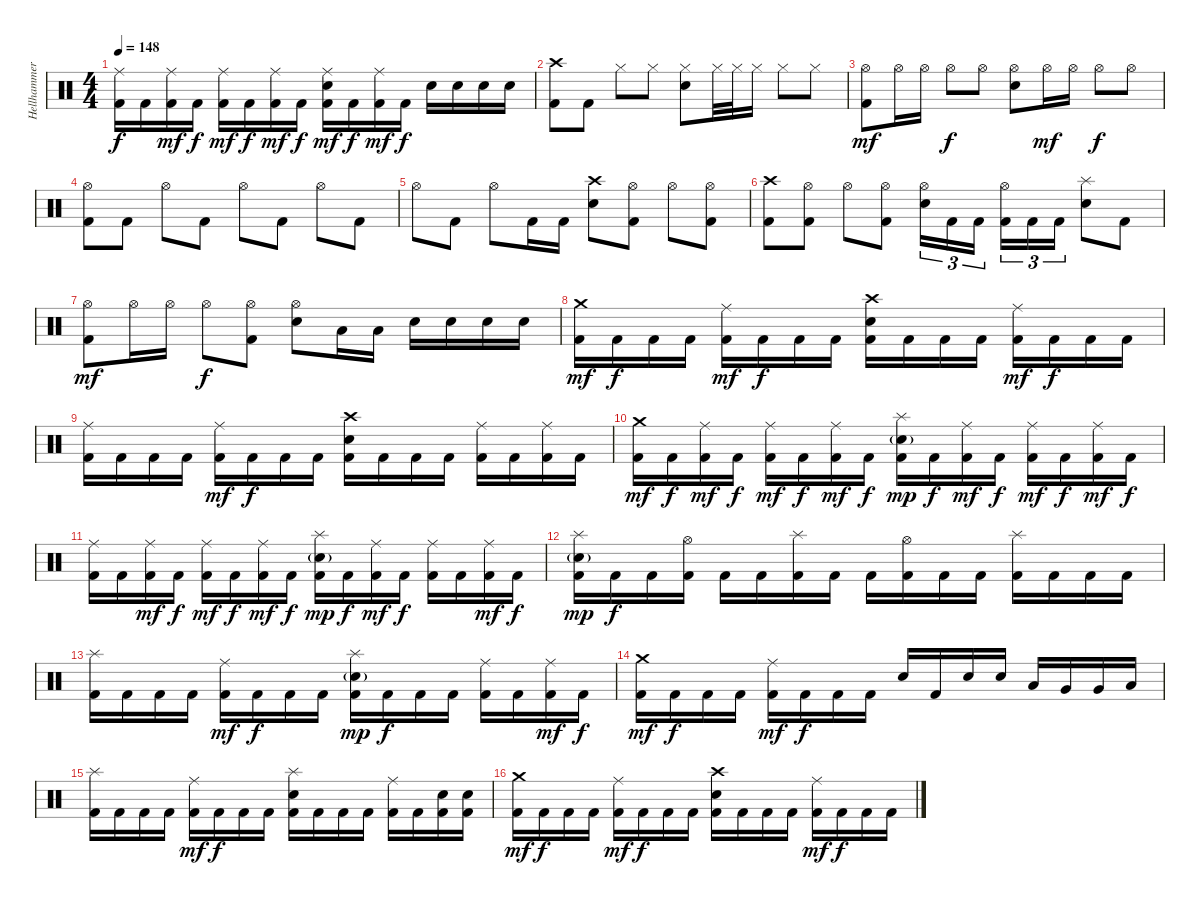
\track ("Hellhammer" "Hellhammer") {instrument percussion}
\staff {score}
\articulation defaults
\ts (4 4)
\tempo 148
\clef neutral
\ks c
("Ride (middle)" "Kick (hit) 2").16{dy f} "Kick (hit) 2".16 ("Ride (middle)" "Kick (hit) 2").16{dy mf} "Kick (hit) 2".16{dy f} ("Ride (middle)" "Kick (hit) 2").16{dy mf} "Kick (hit) 2".16{dy f} ("Ride (middle)" "Kick (hit) 2").16{dy mf} "Kick (hit) 2".16{dy f} ("Ride (middle)" "Snare (hit) 2" "Kick (hit) 2").16{dy mf} "Kick (hit) 2".16{dy f} ("Ride (middle)" "Kick (hit) 2").16{dy mf} "Kick (hit) 2".16{dy f} "Snare (hit) 2".16 "Snare (hit) 2".16 "Snare (hit) 2".16 "Snare (hit) 2".16 |
("Crash high (hit)" "Kick (hit) 2").8 "Kick (hit) 2".8 "Hi-Hat (closed)".8 "Hi-Hat (closed)".8 ("Hi-Hat (closed)" "Snare (hit) 2").8 "Hi-Hat (closed)".32 "Hi-Hat (closed)".32 "Hi-Hat (closed)".16 "Hi-Hat (closed)".8 "Hi-Hat (closed)".8 |
("Hi-Hat (open)" "Kick (hit) 2").8{dy mf} "Hi-Hat (open)".16 "Hi-Hat (open)".16 "Hi-Hat (open)".8{dy f} "Hi-Hat (open)".8 ("Hi-Hat (open)" "Snare (hit) 2").8 "Hi-Hat (open)".16{dy mf} "Hi-Hat (open)".16 "Hi-Hat (open)".8{dy f} "Hi-Hat (open)".8 |
("Hi-Hat (open)" "Kick (hit) 2").8 "Kick (hit) 2".8 "Hi-Hat (open)".8 "Kick (hit) 2".8 "Hi-Hat (open)".8 "Kick (hit) 2".8 "Hi-Hat (open)".8 "Kick (hit) 2".8 |
"Hi-Hat (open)".8 "Kick (hit) 2".8 "Hi-Hat (open)".8 "Kick (hit) 2".16 "Kick (hit) 2".16 ("Crash high (hit)" "Snare (hit) 2").8 ("Hi-Hat (open)" "Kick (hit) 2").8 "Hi-Hat (open)".8 ("Hi-Hat (open)" "Kick (hit) 2").8 |
("Crash high (hit)" "Kick (hit) 2").8 ("Hi-Hat (open)" "Kick (hit) 2").8 "Hi-Hat (open)".8 ("Hi-Hat (open)" "Kick (hit) 2").8 ("Hi-Hat (open)" "Snare (hit) 2").16{tu (3 2)} "Kick (hit) 2".16{tu (3 2)} "Kick (hit) 2".16{tu (3 2) beam splitsecondary} ("Hi-Hat (open)" "Kick (hit) 2").16{tu (3 2)} "Kick (hit) 2".16{tu (3 2)} "Kick (hit) 2".16{tu (3 2)} ("Splash (hit)" "Snare (hit) 2").8 "Kick (hit) 2".8 |
("Hi-Hat (open)" "Kick (hit) 2").8{dy mf} "Hi-Hat (open)".16 "Hi-Hat (open)".16 "Hi-Hat (open)".8{dy f} ("Hi-Hat (open)" "Kick (hit) 2").8 ("Hi-Hat (open)" "Snare (hit) 2").8 "Low Tom (hit)".16 "Low Tom (hit)".16 "Snare (hit) 2".16 "Snare (hit) 2".16 "Snare (hit) 2".16 "Snare (hit) 2".16 |
("Crash medium (hit)" "Kick (hit) 2").16{dy mf} "Kick (hit) 2".16{dy f} "Kick (hit) 2".16 "Kick (hit) 2".16 ("Ride (middle)" "Kick (hit) 2").16{dy mf} "Kick (hit) 2".16{dy f} "Kick (hit) 2".16 "Kick (hit) 2".16 ("Crash high (hit)" "Snare (hit) 2" "Kick (hit) 2").16 "Kick (hit) 2".16 "Kick (hit) 2".16 "Kick (hit) 2".16 ("Ride (middle)" "Kick (hit) 2").16{dy mf} "Kick (hit) 2".16{dy f} "Kick (hit) 2".16 "Kick (hit) 2".16 |
("Ride (middle)" "Kick (hit) 2").16 "Kick (hit) 2".16 "Kick (hit) 2".16 "Kick (hit) 2".16 ("Ride (middle)" "Kick (hit) 2").16{dy mf} "Kick (hit) 2".16{dy f} "Kick (hit) 2".16 "Kick (hit) 2".16 ("Crash high (hit)" "Snare (hit) 2" "Kick (hit) 2").16 "Kick (hit) 2".16 "Kick (hit) 2".16 "Kick (hit) 2".16 ("Ride (middle)" "Kick (hit) 2").16 "Kick (hit) 2".16 ("Ride (middle)" "Kick (hit) 2").16 "Kick (hit) 2".16 |
("Crash medium (hit)" "Kick (hit) 2").16{dy mf} "Kick (hit) 2".16{dy f} ("Ride (middle)" "Kick (hit) 2").16{dy mf} "Kick (hit) 2".16{dy f} ("Ride (middle)" "Kick (hit) 2").16{dy mf} "Kick (hit) 2".16{dy f} ("Ride (middle)" "Kick (hit) 2").16{dy mf} "Kick (hit) 2".16{dy f} ("Splash (hit)" "Snare (hit) 2"{g} "Kick (hit) 2").16{dy mp} "Kick (hit) 2".16{dy f} ("Ride (middle)" "Kick (hit) 2").16{dy mf} "Kick (hit) 2".16{dy f} ("Ride (middle)" "Kick (hit) 2").16{dy mf} "Kick (hit) 2".16{dy f} ("Ride (middle)" "Kick (hit) 2").16{dy mf} "Kick (hit) 2".16{dy f} |
("Ride (middle)" "Kick (hit) 2").16 "Kick (hit) 2".16 ("Ride (middle)" "Kick (hit) 2").16{dy mf} "Kick (hit) 2".16{dy f} ("Ride (middle)" "Kick (hit) 2").16{dy mf} "Kick (hit) 2".16{dy f} ("Ride (middle)" "Kick (hit) 2").16{dy mf} "Kick (hit) 2".16{dy f} ("Splash (hit)" "Snare (hit) 2"{g} "Kick (hit) 2").16{dy mp} "Kick (hit) 2".16{dy f} ("Ride (middle)" "Kick (hit) 2").16{dy mf} "Kick (hit) 2".16{dy f} ("Ride (middle)" "Kick (hit) 2").16 "Kick (hit) 2".16 ("Ride (middle)" "Kick (hit) 2").16{dy mf} "Kick (hit) 2".16{dy f} |
("Splash (hit)" "Snare (hit) 2"{g} "Kick (hit) 2").16{dy mp} "Kick (hit) 2".16{dy f} "Kick (hit) 2".16 ("Hi-Hat (open)" "Kick (hit) 2").16 "Kick (hit) 2".16 "Kick (hit) 2".16 ("Splash (hit)" "Kick (hit) 2").16 "Kick (hit) 2".16 "Kick (hit) 2".16 ("Hi-Hat (open)" "Kick (hit) 2").16 "Kick (hit) 2".16 "Kick (hit) 2".16 ("Splash (hit)" "Kick (hit) 2").16 "Kick (hit) 2".16 "Kick (hit) 2".16 "Kick (hit) 2".16 |
("Splash (hit)" "Kick (hit) 2").16 "Kick (hit) 2".16 "Kick (hit) 2".16 "Kick (hit) 2".16 ("Ride (middle)" "Kick (hit) 2").16{dy mf} "Kick (hit) 2".16{dy f} "Kick (hit) 2".16 "Kick (hit) 2".16 ("Splash (hit)" "Snare (hit) 2"{g} "Kick (hit) 2").16{dy mp} "Kick (hit) 2".16{dy f} "Kick (hit) 2".16 "Kick (hit) 2".16 ("Ride (middle)" "Kick (hit) 2").16 "Kick (hit) 2".16 ("Ride (middle)" "Kick (hit) 2").16{dy mf} "Kick (hit) 2".16{dy f} |
("Crash medium (hit)" "Kick (hit) 2").16{dy mf} "Kick (hit) 2".16{dy f} "Kick (hit) 2".16 "Kick (hit) 2".16 ("Ride (middle)" "Kick (hit) 2").16{dy mf} "Kick (hit) 2".16{dy f} "Kick (hit) 2".16 "Kick (hit) 2".16 "Snare (hit) 2".16 "Kick (hit) 2".16 "Snare (hit) 2".16 "Snare (hit) 2".16 "Low Tom (hit)".16 "Very Low Tom (hit)".16 "Very Low Tom (hit)".16 "Low Floor Tom (hit)".16 |
("Splash (hit)" "Kick (hit) 2").16 "Kick (hit) 2".16 "Kick (hit) 2".16 "Kick (hit) 2".16 ("Ride (middle)" "Kick (hit) 2").16{dy mf} "Kick (hit) 2".16{dy f} "Kick (hit) 2".16 "Kick (hit) 2".16 ("Splash (hit)" "Snare (hit) 2" "Kick (hit) 2").16 "Kick (hit) 2".16 "Kick (hit) 2".16 "Kick (hit) 2".16 ("Ride (middle)" "Kick (hit) 2").16 "Kick (hit) 2".16 ("Snare (hit) 2" "Kick (hit) 2").16 ("Snare (hit) 2" "Kick (hit) 2").16 |
("Crash medium (hit)" "Kick (hit) 2").16{dy mf} "Kick (hit) 2".16{dy f} "Kick (hit) 2".16 "Kick (hit) 2".16 ("Ride (middle)" "Kick (hit) 2").16{dy mf} "Kick (hit) 2".16{dy f} "Kick (hit) 2".16 "Kick (hit) 2".16 ("Crash high (hit)" "Snare (hit) 2" "Kick (hit) 2").16 "Kick (hit) 2".16 "Kick (hit) 2".16 "Kick (hit) 2".16 ("Ride (middle)" "Kick (hit) 2").16{dy mf} "Kick (hit) 2".16{dy f} "Kick (hit) 2".16 "Kick (hit) 2".16
